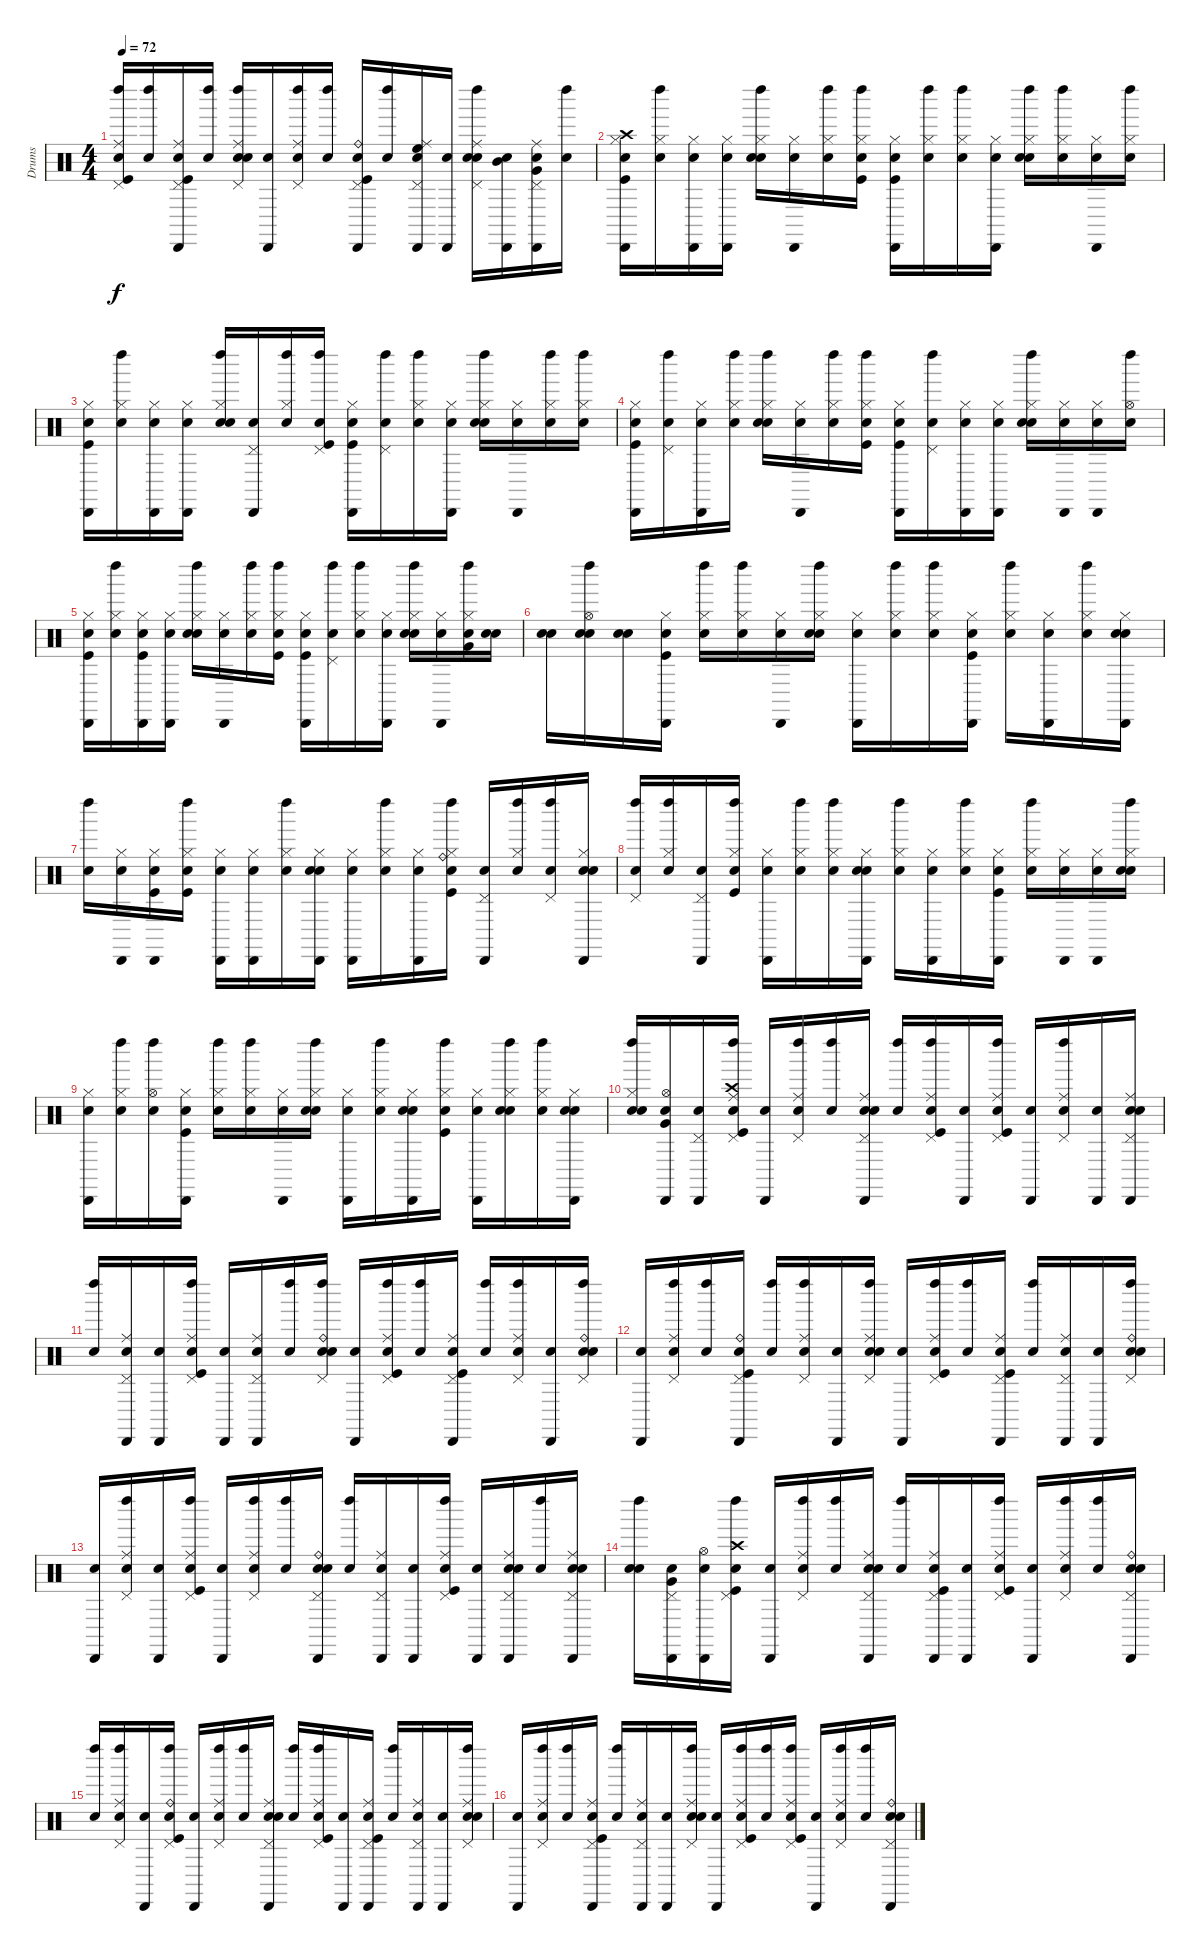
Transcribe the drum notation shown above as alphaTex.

\track ("Drums   " "Drums   ") {instrument percussion}
\staff {score}
\articulation defaults
\ts (4 4)
\tempo 72
\clef neutral
\ks c
("Snare (hit)" "Ride (middle)" "Pedal Hi-Hat (hit)" "Kick (hit)" "Left Maraca (hit)").16{dy f} ("Snare (hit)" "Left Maraca (hit)").16 ("Snare (hit)" "Cabasa (hit)" "Kick (hit)" "Ride (middle)" "Pedal Hi-Hat (hit)").16 ("Snare (hit)" "Left Maraca (hit)").16 ("Snare (hit)" "Ride (middle)" "Snare (hit) 2" "Left Maraca (hit)" "Pedal Hi-Hat (hit)").16 ("Snare (hit)" "Cabasa (hit)").16 ("Snare (hit)" "Pedal Hi-Hat (hit)" "Ride (middle)" "Left Maraca (hit)").16 ("Snare (hit)" "Left Maraca (hit)").16 ("Snare (hit)" "Ride (bell)" "Pedal Hi-Hat (hit)" "Cabasa (hit)" "Kick (hit)").16 ("Snare (hit)" "Left Maraca (hit)").16 ("Snare (hit)" "Pedal Hi-Hat (hit)" "High Floor Tom (hit)" "Cabasa (hit)" "Ride (middle)").16 ("Snare (hit)" "Cabasa (hit)").16 ("Snare (hit)" "Pedal Hi-Hat (hit)" "Snare (hit) 2" "Ride (middle)" "Left Maraca (hit)").16 ("Snare (hit)" "Cabasa (hit)" "Mid Tom (hit)").16 ("Snare (hit)" "Cabasa (hit)" "Ride (middle)" "Very Low Tom (hit)" "Pedal Hi-Hat (hit)").16 ("Snare (hit)" "Left Maraca (hit)").16 |
("Snare (hit)" "Cabasa (hit)" "Hi-Hat (closed)" "Kick (hit)" "Crash high (hit)").16 ("Snare (hit)" "Hi-Hat (closed)" "Left Maraca (hit)").16 ("Snare (hit)" "Hi-Hat (closed)" "Cabasa (hit)").16 ("Snare (hit)" "Cabasa (hit)" "Hi-Hat (closed)").16 ("Snare (hit)" "Snare (hit) 2" "Hi-Hat (closed)" "Left Maraca (hit)").16 ("Snare (hit)" "Cabasa (hit)" "Hi-Hat (closed)").16 ("Snare (hit)" "Hi-Hat (closed)" "Left Maraca (hit)").16 ("Snare (hit)" "Hi-Hat (closed)" "Left Maraca (hit)" "Kick (hit)").16 ("Snare (hit)" "Cabasa (hit)" "Kick (hit)" "Hi-Hat (closed)").16 ("Snare (hit)" "Hi-Hat (closed)" "Left Maraca (hit)").16 ("Snare (hit)" "Hi-Hat (closed)" "Left Maraca (hit)").16 ("Snare (hit)" "Cabasa (hit)" "Hi-Hat (closed)").16 ("Snare (hit)" "Hi-Hat (closed)" "Snare (hit) 2" "Left Maraca (hit)").16 ("Snare (hit)" "Left Maraca (hit)" "Hi-Hat (closed)").16 ("Snare (hit)" "Cabasa (hit)" "Hi-Hat (closed)").16 ("Snare (hit)" "Left Maraca (hit)" "Hi-Hat (closed)").16 |
("Snare (hit)" "Cabasa (hit)" "Hi-Hat (closed)" "Kick (hit)").16 ("Snare (hit)" "Hi-Hat (closed)" "Left Maraca (hit)").16 ("Snare (hit)" "Cabasa (hit)" "Hi-Hat (closed)").16 ("Snare (hit)" "Cabasa (hit)" "Hi-Hat (closed)").16 ("Snare (hit)" "Snare (hit) 2" "Hi-Hat (closed)" "Left Maraca (hit)").16 ("Snare (hit)" "Pedal Hi-Hat (hit)" "Cabasa (hit)").16 ("Snare (hit)" "Hi-Hat (closed)" "Left Maraca (hit)").16 ("Snare (hit)" "Kick (hit)" "Pedal Hi-Hat (hit)" "Left Maraca (hit)").16 ("Snare (hit)" "Cabasa (hit)" "Hi-Hat (closed)" "Kick (hit)").16 ("Snare (hit)" "Pedal Hi-Hat (hit)" "Left Maraca (hit)").16 ("Snare (hit)" "Hi-Hat (closed)" "Left Maraca (hit)").16 ("Snare (hit)" "Cabasa (hit)" "Hi-Hat (closed)").16 ("Snare (hit)" "Hi-Hat (closed)" "Snare (hit) 2" "Left Maraca (hit)").16 ("Snare (hit)" "Hi-Hat (closed)" "Cabasa (hit)").16 ("Snare (hit)" "Hi-Hat (closed)" "Left Maraca (hit)").16 ("Snare (hit)" "Hi-Hat (closed)" "Left Maraca (hit)").16 |
("Snare (hit)" "Cabasa (hit)" "Kick (hit)" "Hi-Hat (closed)").16 ("Snare (hit)" "Left Maraca (hit)" "Pedal Hi-Hat (hit)").16 ("Snare (hit)" "Cabasa (hit)" "Hi-Hat (closed)").16 ("Snare (hit)" "Hi-Hat (closed)" "Left Maraca (hit)").16 ("Snare (hit)" "Snare (hit) 2" "Hi-Hat (closed)" "Left Maraca (hit)").16 ("Snare (hit)" "Cabasa (hit)" "Hi-Hat (closed)").16 ("Snare (hit)" "Hi-Hat (closed)" "Left Maraca (hit)").16 ("Snare (hit)" "Kick (hit)" "Hi-Hat (closed)" "Left Maraca (hit)").16 ("Snare (hit)" "Cabasa (hit)" "Kick (hit)" "Hi-Hat (closed)").16 ("Snare (hit)" "Pedal Hi-Hat (hit)" "Left Maraca (hit)").16 ("Snare (hit)" "Hi-Hat (closed)" "Cabasa (hit)").16 ("Snare (hit)" "Cabasa (hit)" "Hi-Hat (closed)").16 ("Snare (hit)" "Snare (hit) 2" "Hi-Hat (closed)" "Left Maraca (hit)").16 ("Snare (hit)" "Cabasa (hit)" "Hi-Hat (closed)").16 ("Snare (hit)" "Hi-Hat (closed)" "Cabasa (hit)").16 ("Snare (hit)" "Hi-Hat (open)" "Left Maraca (hit)").16 |
("Snare (hit)" "Hi-Hat (closed)" "Cabasa (hit)" "Kick (hit)").16 ("Snare (hit)" "Hi-Hat (closed)" "Left Maraca (hit)").16 ("Snare (hit)" "Cabasa (hit)" "Hi-Hat (closed)" "Kick (hit)").16 ("Snare (hit)" "Cabasa (hit)" "Hi-Hat (closed)").16 ("Snare (hit)" "Snare (hit) 2" "Hi-Hat (closed)" "Left Maraca (hit)").16 ("Snare (hit)" "Cabasa (hit)" "Hi-Hat (closed)").16 ("Snare (hit)" "Hi-Hat (closed)" "Left Maraca (hit)").16 ("Snare (hit)" "Kick (hit)" "Hi-Hat (closed)" "Left Maraca (hit)").16 ("Snare (hit)" "Hi-Hat (closed)" "Cabasa (hit)" "Kick (hit)").16 ("Snare (hit)" "Pedal Hi-Hat (hit)" "Left Maraca (hit)").16 ("Snare (hit)" "Left Maraca (hit)" "Hi-Hat (closed)").16 ("Snare (hit)" "Cabasa (hit)" "Hi-Hat (closed)").16 ("Snare (hit)" "Snare (hit) 2" "Hi-Hat (closed)" "Left Maraca (hit)").16 ("Snare (hit)" "Cabasa (hit)" "Hi-Hat (closed)").16 ("Snare (hit)" "Hi-Hat (closed)" "Very Low Tom (hit)" "Left Maraca (hit)").16 ("Snare (hit)" "Snare (hit) 2").16 |
("Snare (hit)" "Snare (hit) 2").16 ("Snare (hit)" "Hi-Hat (open)" "Left Maraca (hit)" "Snare (hit) 2").16 ("Snare (hit)" "Snare (hit) 2").16 ("Snare (hit)" "Cabasa (hit)" "Kick (hit)" "Hi-Hat (closed)").16 ("Snare (hit)" "Hi-Hat (closed)" "Left Maraca (hit)").16 ("Snare (hit)" "Hi-Hat (closed)" "Left Maraca (hit)").16 ("Snare (hit)" "Cabasa (hit)" "Hi-Hat (closed)").16 ("Snare (hit)" "Snare (hit) 2" "Hi-Hat (closed)" "Left Maraca (hit)").16 ("Snare (hit)" "Cabasa (hit)" "Hi-Hat (closed)").16 ("Snare (hit)" "Hi-Hat (closed)" "Left Maraca (hit)").16 ("Snare (hit)" "Hi-Hat (closed)" "Left Maraca (hit)").16 ("Snare (hit)" "Kick (hit)" "Hi-Hat (closed)" "Cabasa (hit)").16 ("Snare (hit)" "Left Maraca (hit)" "Hi-Hat (closed)").16 ("Snare (hit)" "Cabasa (hit)" "Hi-Hat (closed)").16 ("Snare (hit)" "Hi-Hat (closed)" "Left Maraca (hit)").16 ("Snare (hit)" "Cabasa (hit)" "Snare (hit) 2" "Hi-Hat (closed)").16 |
("Snare (hit)" "Left Maraca (hit)").16 ("Snare (hit)" "Cabasa (hit)" "Hi-Hat (closed)").16 ("Snare (hit)" "Cabasa (hit)" "Kick (hit)" "Hi-Hat (closed)").16 ("Snare (hit)" "Kick (hit)" "Left Maraca (hit)" "Hi-Hat (closed)").16 ("Snare (hit)" "Hi-Hat (closed)" "Cabasa (hit)").16 ("Snare (hit)" "Hi-Hat (closed)" "Cabasa (hit)").16 ("Snare (hit)" "Left Maraca (hit)" "Hi-Hat (closed)").16 ("Snare (hit)" "Hi-Hat (closed)" "Snare (hit) 2" "Cabasa (hit)").16 ("Snare (hit)" "Cabasa (hit)" "Hi-Hat (closed)").16 ("Snare (hit)" "Hi-Hat (closed)" "Left Maraca (hit)").16 ("Snare (hit)" "Cabasa (hit)" "Hi-Hat (closed)").16 ("Snare (hit)" "Ride (bell)" "Hi-Hat (closed)" "Kick (hit)" "Left Maraca (hit)").16 ("Snare (hit)" "Cabasa (hit)" "Pedal Hi-Hat (hit)").16 ("Snare (hit)" "Hi-Hat (closed)" "Left Maraca (hit)").16 ("Snare (hit)" "Pedal Hi-Hat (hit)" "Left Maraca (hit)").16 ("Snare (hit)" "Snare (hit) 2" "Hi-Hat (closed)" "Cabasa (hit)").16 |
("Snare (hit)" "Pedal Hi-Hat (hit)" "Left Maraca (hit)").16 ("Snare (hit)" "Left Maraca (hit)" "Hi-Hat (closed)").16 ("Snare (hit)" "Cabasa (hit)" "Pedal Hi-Hat (hit)").16 ("Snare (hit)" "Kick (hit)" "Hi-Hat (closed)" "Left Maraca (hit)").16 ("Snare (hit)" "Cabasa (hit)" "Hi-Hat (closed)").16 ("Snare (hit)" "Hi-Hat (closed)" "Left Maraca (hit)").16 ("Snare (hit)" "Hi-Hat (closed)" "Left Maraca (hit)").16 ("Snare (hit)" "Cabasa (hit)" "Snare (hit) 2" "Hi-Hat (closed)").16 ("Snare (hit)" "Hi-Hat (closed)" "Left Maraca (hit)").16 ("Snare (hit)" "Cabasa (hit)" "Hi-Hat (closed)").16 ("Snare (hit)" "Hi-Hat (closed)" "Left Maraca (hit)").16 ("Snare (hit)" "Cabasa (hit)" "Kick (hit)" "Hi-Hat (closed)").16 ("Snare (hit)" "Left Maraca (hit)" "Hi-Hat (closed)").16 ("Snare (hit)" "Hi-Hat (closed)" "Cabasa (hit)").16 ("Snare (hit)" "Hi-Hat (closed)" "Cabasa (hit)").16 ("Snare (hit)" "Snare (hit) 2" "Hi-Hat (closed)" "Left Maraca (hit)").16 |
("Snare (hit)" "Cabasa (hit)" "Hi-Hat (closed)").16 ("Snare (hit)" "Left Maraca (hit)" "Hi-Hat (closed)").16 ("Snare (hit)" "Hi-Hat (open)" "Left Maraca (hit)").16 ("Snare (hit)" "Kick (hit)" "Hi-Hat (closed)" "Cabasa (hit)").16 ("Snare (hit)" "Hi-Hat (closed)" "Left Maraca (hit)").16 ("Snare (hit)" "Hi-Hat (closed)" "Left Maraca (hit)").16 ("Snare (hit)" "Cabasa (hit)" "Hi-Hat (closed)").16 ("Snare (hit)" "Hi-Hat (closed)" "Left Maraca (hit)" "Snare (hit) 2").16 ("Snare (hit)" "Cabasa (hit)" "Hi-Hat (closed)").16 ("Snare (hit)" "Hi-Hat (closed)" "Left Maraca (hit)").16 ("Snare (hit)" "Cabasa (hit)" "Hi-Hat (closed)" "Snare (hit) 2").16 ("Snare (hit)" "Hi-Hat (closed)" "Left Maraca (hit)" "Kick (hit)").16 ("Snare (hit)" "Cabasa (hit)" "Hi-Hat (closed)").16 ("Snare (hit)" "Snare (hit) 2" "Hi-Hat (closed)" "Left Maraca (hit)").16 ("Snare (hit)" "Left Maraca (hit)" "Hi-Hat (closed)").16 ("Snare (hit)" "Cabasa (hit)" "Hi-Hat (closed)" "Snare (hit) 2").16 |
("Snare (hit)" "Snare (hit) 2" "Left Maraca (hit)" "Hi-Hat (closed)").16 ("Snare (hit)" "Very Low Tom (hit)" "Cabasa (hit)" "Hi-Hat (open)").16 ("Snare (hit)" "Cabasa (hit)" "Pedal Hi-Hat (hit)").16 ("Snare (hit)" "Ride (middle)" "Pedal Hi-Hat (hit)" "Kick (hit)" "Crash high (hit)" "Left Maraca (hit)").16 ("Snare (hit)" "Cabasa (hit)").16 ("Snare (hit)" "Ride (middle)" "Pedal Hi-Hat (hit)" "Left Maraca (hit)").16 ("Snare (hit)" "Left Maraca (hit)").16 ("Snare (hit)" "Cabasa (hit)" "Snare (hit) 2" "Ride (middle)" "Pedal Hi-Hat (hit)").16 ("Snare (hit)" "Left Maraca (hit)").16 ("Snare (hit)" "Left Maraca (hit)" "Kick (hit)" "Pedal Hi-Hat (hit)" "Ride (middle)").16 ("Snare (hit)" "Cabasa (hit)").16 ("Snare (hit)" "Pedal Hi-Hat (hit)" "Ride (middle)" "Kick (hit)" "Left Maraca (hit)").16 ("Snare (hit)" "Cabasa (hit)").16 ("Snare (hit)" "Ride (middle)" "Pedal Hi-Hat (hit)" "Left Maraca (hit)").16 ("Snare (hit)" "Cabasa (hit)").16 ("Snare (hit)" "Cabasa (hit)" "Snare (hit) 2" "Ride (middle)" "Pedal Hi-Hat (hit)").16 |
("Snare (hit)" "Left Maraca (hit)").16 ("Snare (hit)" "Ride (middle)" "Cabasa (hit)" "Pedal Hi-Hat (hit)").16 ("Snare (hit)" "Cabasa (hit)").16 ("Snare (hit)" "Ride (middle)" "Kick (hit)" "Pedal Hi-Hat (hit)" "Left Maraca (hit)").16 ("Snare (hit)" "Cabasa (hit)").16 ("Snare (hit)" "Pedal Hi-Hat (hit)" "Ride (middle)" "Cabasa (hit)").16 ("Snare (hit)" "Left Maraca (hit)").16 ("Snare (hit)" "Snare (hit) 2" "Ride (bell)" "Pedal Hi-Hat (hit)" "Left Maraca (hit)").16 ("Snare (hit)" "Cabasa (hit)").16 ("Snare (hit)" "Ride (middle)" "Kick (hit)" "Left Maraca (hit)" "Pedal Hi-Hat (hit)").16 ("Snare (hit)" "Left Maraca (hit)").16 ("Snare (hit)" "Cabasa (hit)" "Ride (middle)" "Kick (hit)" "Pedal Hi-Hat (hit)").16 ("Snare (hit)" "Left Maraca (hit)").16 ("Snare (hit)" "Ride (middle)" "Pedal Hi-Hat (hit)" "Left Maraca (hit)").16 ("Snare (hit)" "Cabasa (hit)").16 ("Snare (hit)" "Snare (hit) 2" "Ride (bell)" "Left Maraca (hit)" "Pedal Hi-Hat (hit)").16 |
("Snare (hit)" "Cabasa (hit)").16 ("Snare (hit)" "Ride (middle)" "Pedal Hi-Hat (hit)" "Left Maraca (hit)").16 ("Snare (hit)" "Left Maraca (hit)").16 ("Snare (hit)" "Kick (hit)" "Pedal Hi-Hat (hit)" "Ride (bell)" "Cabasa (hit)").16 ("Snare (hit)" "Left Maraca (hit)").16 ("Snare (hit)" "Ride (middle)" "Pedal Hi-Hat (hit)" "Left Maraca (hit)").16 ("Snare (hit)" "Cabasa (hit)").16 ("Snare (hit)" "Pedal Hi-Hat (hit)" "Ride (middle)" "Snare (hit) 2" "Left Maraca (hit)").16 ("Snare (hit)" "Cabasa (hit)").16 ("Snare (hit)" "Kick (hit)" "Pedal Hi-Hat (hit)" "Ride (middle)" "Left Maraca (hit)").16 ("Snare (hit)" "Left Maraca (hit)").16 ("Snare (hit)" "Cabasa (hit)" "Kick (hit)" "Ride (middle)" "Pedal Hi-Hat (hit)").16 ("Snare (hit)" "Left Maraca (hit)").16 ("Snare (hit)" "Pedal Hi-Hat (hit)" "Cabasa (hit)" "Ride (middle)").16 ("Snare (hit)" "Cabasa (hit)").16 ("Snare (hit)" "Ride (bell)" "Snare (hit) 2" "Pedal Hi-Hat (hit)" "Left Maraca (hit)").16 |
("Snare (hit)" "Cabasa (hit)").16 ("Snare (hit)" "Ride (middle)" "Left Maraca (hit)" "Pedal Hi-Hat (hit)").16 ("Snare (hit)" "Cabasa (hit)").16 ("Snare (hit)" "Ride (middle)" "Kick (hit)" "Pedal Hi-Hat (hit)" "Left Maraca (hit)").16 ("Snare (hit)" "Cabasa (hit)").16 ("Snare (hit)" "Ride (middle)" "Left Maraca (hit)" "Pedal Hi-Hat (hit)").16 ("Snare (hit)" "Left Maraca (hit)").16 ("Snare (hit)" "Ride (bell)" "Cabasa (hit)" "Snare (hit) 2" "Pedal Hi-Hat (hit)").16 ("Snare (hit)" "Left Maraca (hit)").16 ("Snare (hit)" "Cabasa (hit)" "Ride (middle)" "Pedal Hi-Hat (hit)").16 ("Snare (hit)" "Cabasa (hit)").16 ("Snare (hit)" "Pedal Hi-Hat (hit)" "Kick (hit)" "Ride (middle)" "Left Maraca (hit)").16 ("Snare (hit)" "Cabasa (hit)").16 ("Snare (hit)" "Cabasa (hit)" "Snare (hit) 2" "Pedal Hi-Hat (hit)" "Ride (middle)").16 ("Snare (hit)" "Left Maraca (hit)").16 ("Snare (hit)" "Ride (middle)" "Snare (hit) 2" "Pedal Hi-Hat (hit)" "Cabasa (hit)").16 |
("Snare (hit)" "Left Maraca (hit)" "Snare (hit) 2").16 ("Snare (hit)" "Very Low Tom (hit)" "Cabasa (hit)" "Pedal Hi-Hat (hit)").16 ("Snare (hit)" "Cabasa (hit)" "Hi-Hat (open)").16 ("Snare (hit)" "Kick (hit)" "Crash high (hit)" "Pedal Hi-Hat (hit)" "Left Maraca (hit)").16 ("Snare (hit)" "Cabasa (hit)").16 ("Snare (hit)" "Left Maraca (hit)" "Pedal Hi-Hat (hit)" "Ride (middle)").16 ("Snare (hit)" "Left Maraca (hit)").16 ("Snare (hit)" "Ride (middle)" "Cabasa (hit)" "Snare (hit) 2" "Pedal Hi-Hat (hit)").16 ("Snare (hit)" "Left Maraca (hit)").16 ("Snare (hit)" "Cabasa (hit)" "Ride (middle)" "Kick (hit)" "Pedal Hi-Hat (hit)").16 ("Snare (hit)" "Cabasa (hit)").16 ("Snare (hit)" "Pedal Hi-Hat (hit)" "Left Maraca (hit)" "Kick (hit)" "Ride (middle)").16 ("Snare (hit)" "Cabasa (hit)").16 ("Snare (hit)" "Ride (middle)" "Left Maraca (hit)" "Pedal Hi-Hat (hit)").16 ("Snare (hit)" "Left Maraca (hit)").16 ("Snare (hit)" "Cabasa (hit)" "Ride (bell)" "Snare (hit) 2" "Pedal Hi-Hat (hit)").16 |
("Snare (hit)" "Left Maraca (hit)").16 ("Snare (hit)" "Pedal Hi-Hat (hit)" "Left Maraca (hit)" "Ride (middle)").16 ("Snare (hit)" "Cabasa (hit)").16 ("Snare (hit)" "Ride (bell)" "Kick (hit)" "Pedal Hi-Hat (hit)" "Left Maraca (hit)").16 ("Snare (hit)" "Cabasa (hit)").16 ("Snare (hit)" "Ride (middle)" "Pedal Hi-Hat (hit)" "Left Maraca (hit)").16 ("Snare (hit)" "Left Maraca (hit)").16 ("Snare (hit)" "Cabasa (hit)" "Snare (hit) 2" "Pedal Hi-Hat (hit)" "Ride (middle)").16 ("Snare (hit)" "Left Maraca (hit)").16 ("Snare (hit)" "Pedal Hi-Hat (hit)" "Left Maraca (hit)" "Kick (hit)" "Ride (middle)").16 ("Snare (hit)" "Cabasa (hit)").16 ("Snare (hit)" "Ride (middle)" "Pedal Hi-Hat (hit)" "Cabasa (hit)" "Kick (hit)").16 ("Snare (hit)" "Left Maraca (hit)").16 ("Snare (hit)" "Pedal Hi-Hat (hit)" "Ride (middle)" "Cabasa (hit)").16 ("Snare (hit)" "Cabasa (hit)").16 ("Snare (hit)" "Snare (hit) 2" "Pedal Hi-Hat (hit)" "Ride (middle)" "Left Maraca (hit)").16 |
("Snare (hit)" "Cabasa (hit)").16 ("Snare (hit)" "Left Maraca (hit)" "Pedal Hi-Hat (hit)" "Ride (middle)").16 ("Snare (hit)" "Left Maraca (hit)").16 ("Snare (hit)" "Kick (hit)" "Ride (middle)" "Pedal Hi-Hat (hit)" "Cabasa (hit)").16 ("Snare (hit)" "Left Maraca (hit)").16 ("Snare (hit)" "Pedal Hi-Hat (hit)" "Cabasa (hit)" "Ride (middle)").16 ("Snare (hit)" "Cabasa (hit)").16 ("Snare (hit)" "Left Maraca (hit)" "Snare (hit) 2" "Pedal Hi-Hat (hit)" "Ride (middle)").16 ("Snare (hit)" "Cabasa (hit)").16 ("Snare (hit)" "Pedal Hi-Hat (hit)" "Ride (middle)" "Kick (hit)" "Left Maraca (hit)").16 ("Snare (hit)" "Left Maraca (hit)").16 ("Snare (hit)" "Kick (hit)" "Pedal Hi-Hat (hit)" "Ride (middle)" "Left Maraca (hit)").16 ("Snare (hit)" "Cabasa (hit)").16 ("Snare (hit)" "Pedal Hi-Hat (hit)" "Ride (middle)" "Left Maraca (hit)").16 ("Snare (hit)" "Left Maraca (hit)").16 ("Snare (hit)" "Ride (bell)" "Cabasa (hit)" "Pedal Hi-Hat (hit)" "Snare (hit) 2").16
